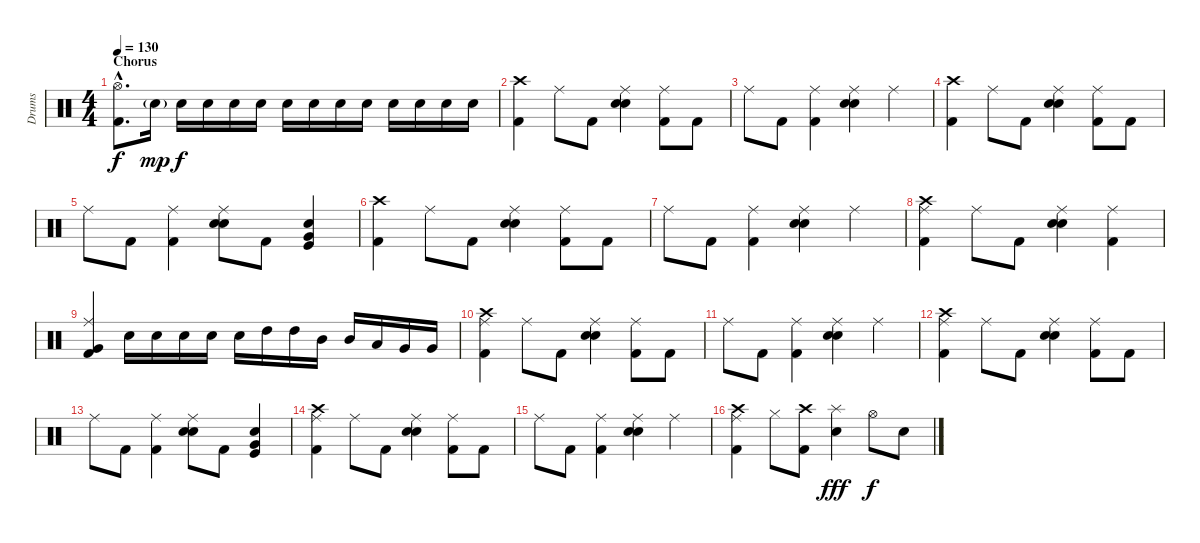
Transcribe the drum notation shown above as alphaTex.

\track ("Drums" "Drums") {instrument percussion}
\staff {score}
\articulation defaults
\ts (4 4)
\section ("" "Chorus")
\tempo 130
\clef neutral
\ks c
("Hi-Hat (open)"{hac} "Kick (hit) 2"{hac}).8{d dy f} "Snare (hit) 2"{g}.16{dy mp} "Snare (hit) 2".16{dy f} "Snare (hit) 2".16 "Snare (hit) 2".16 "Snare (hit) 2".16 "Snare (hit) 2".16 "Snare (hit) 2".16 "Snare (hit) 2".16 "Snare (hit) 2".16 "Snare (hit) 2".16 "Snare (hit) 2".16 "Snare (hit) 2".16 "Snare (hit) 2".16 |
("Crash high (hit)" "Kick (hit) 2").4 "Ride (middle)".8 "Kick (hit) 2".8 ("Ride (middle)" "Snare (hit) 2" "Snare (hit) 2").4 ("Ride (middle)" "Kick (hit) 2").8 "Kick (hit) 2".8 |
"Ride (middle)".8 "Kick (hit) 2".8 ("Ride (middle)" "Kick (hit) 2").4 ("Snare (hit) 2" "Snare (hit) 2" "Ride (middle)").4 "Ride (middle)".4 |
("Crash high (hit)" "Kick (hit) 2").4 "Ride (middle)".8 "Kick (hit) 2".8 ("Ride (middle)" "Snare (hit) 2" "Snare (hit) 2").4 ("Ride (middle)" "Kick (hit) 2").8 "Kick (hit) 2".8 |
"Ride (middle)".8 "Kick (hit) 2".8 ("Ride (middle)" "Kick (hit) 2").4 ("Snare (hit) 2" "Snare (hit) 2" "Ride (middle)").8 "Kick (hit) 2".8 ("Snare (hit) 2" "Very Low Tom (hit)" "Kick (hit)").4 |
("Crash high (hit)" "Kick (hit) 2").4 "Ride (middle)".8 "Kick (hit) 2".8 ("Ride (middle)" "Snare (hit) 2" "Snare (hit) 2").4 ("Ride (middle)" "Kick (hit) 2").8 "Kick (hit) 2".8 |
"Ride (middle)".8 "Kick (hit) 2".8 ("Ride (middle)" "Kick (hit) 2").4 ("Snare (hit) 2" "Snare (hit) 2" "Ride (middle)").4 "Ride (middle)".4 |
("Crash high (hit)" "Ride (middle)" "Kick (hit) 2").4 "Ride (middle)".8 "Kick (hit) 2".8 ("Ride (middle)" "Snare (hit) 2" "Snare (hit) 2").4 ("Ride (middle)" "Kick (hit) 2").4 |
("Ride (middle)" "Very Low Tom (hit)" "Kick (hit) 2").4 "Snare (hit) 2".16 "Snare (hit) 2".16 "Snare (hit) 2".16 "Snare (hit) 2".16 "Snare (hit) 2".16 "High Tom (hit)".16 "High Tom (hit)".16 "Mid Tom (hit)".16 "Mid Tom (hit)".16 "Low Tom (hit)".16 "Very Low Tom (hit)".16 "Very Low Tom (hit)".16 |
("Crash high (hit)" "Ride (middle)" "Kick (hit) 2").4 "Ride (middle)".8 "Kick (hit) 2".8 ("Ride (middle)" "Snare (hit) 2" "Snare (hit) 2").4 ("Ride (middle)" "Kick (hit) 2").8 "Kick (hit) 2".8 |
"Ride (middle)".8 "Kick (hit) 2".8 ("Ride (middle)" "Kick (hit) 2").4 ("Snare (hit) 2" "Snare (hit) 2" "Ride (middle)").4 "Ride (middle)".4 |
("Crash high (hit)" "Ride (middle)" "Kick (hit) 2").4 "Ride (middle)".8 "Kick (hit) 2".8 ("Ride (middle)" "Snare (hit) 2" "Snare (hit) 2").4 ("Ride (middle)" "Kick (hit) 2").8 "Kick (hit) 2".8 |
"Ride (middle)".8 "Kick (hit) 2".8 ("Ride (middle)" "Kick (hit) 2").4 ("Snare (hit) 2" "Snare (hit) 2" "Ride (middle)").8 "Kick (hit) 2".8 ("Snare (hit) 2" "Very Low Tom (hit)" "Kick (hit)").4 |
("Crash high (hit)" "Ride (middle)" "Kick (hit) 2").4 "Ride (middle)".8 "Kick (hit) 2".8 ("Ride (middle)" "Snare (hit) 2" "Snare (hit) 2").4 ("Ride (middle)" "Kick (hit) 2").8 "Kick (hit) 2".8 |
"Ride (middle)".8 "Kick (hit) 2".8 ("Ride (middle)" "Kick (hit) 2").4 ("Snare (hit) 2" "Snare (hit) 2" "Ride (middle)").4 "Ride (middle)".4 |
("Crash high (hit)" "Ride (middle)" "Kick (hit) 2").4 "Hi-Hat (closed)".8 ("Crash high (hit)" "Kick (hit) 2").8 ("Splash (hit)" "Snare (hit) 2").4{dy fff} "Hi-Hat (open)".8{dy f} "Snare (hit) 2".8
